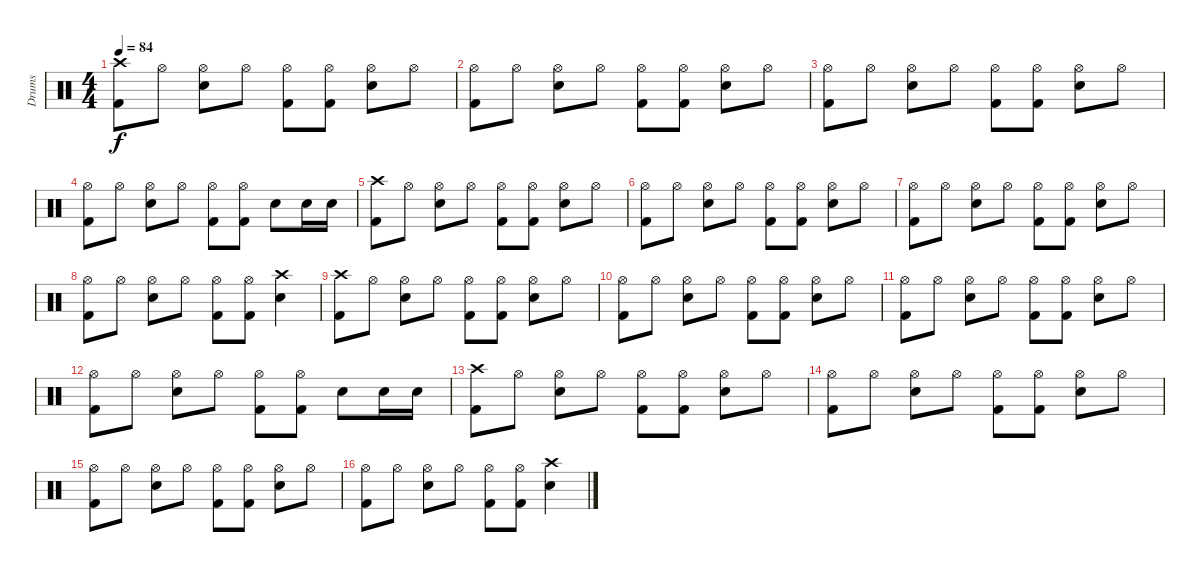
\track ("Drums" "Drums") {instrument percussion}
\staff {score}
\articulation defaults
\ts (4 4)
\tempo 84
\clef neutral
\ks c
("Crash high (hit)" "Kick (hit) 2").8{dy f} "Hi-Hat (open)".8 ("Hi-Hat (open)" "Snare (hit) 2").8 "Hi-Hat (open)".8 ("Hi-Hat (open)" "Kick (hit) 2").8 ("Hi-Hat (open)" "Kick (hit) 2").8 ("Hi-Hat (open)" "Snare (hit) 2").8 "Hi-Hat (open)".8 |
("Hi-Hat (open)" "Kick (hit) 2").8 "Hi-Hat (open)".8 ("Hi-Hat (open)" "Snare (hit) 2").8 "Hi-Hat (open)".8 ("Hi-Hat (open)" "Kick (hit) 2").8 ("Hi-Hat (open)" "Kick (hit) 2").8 ("Hi-Hat (open)" "Snare (hit) 2").8 "Hi-Hat (open)".8 |
("Hi-Hat (open)" "Kick (hit) 2").8 "Hi-Hat (open)".8 ("Hi-Hat (open)" "Snare (hit) 2").8 "Hi-Hat (open)".8 ("Hi-Hat (open)" "Kick (hit) 2").8 ("Hi-Hat (open)" "Kick (hit) 2").8 ("Hi-Hat (open)" "Snare (hit) 2").8 "Hi-Hat (open)".8 |
("Hi-Hat (open)" "Kick (hit) 2").8 "Hi-Hat (open)".8 ("Hi-Hat (open)" "Snare (hit) 2").8 "Hi-Hat (open)".8 ("Hi-Hat (open)" "Kick (hit) 2").8 ("Hi-Hat (open)" "Kick (hit) 2").8 "Snare (hit) 2".8 "Snare (hit) 2".16 "Snare (hit) 2".16 |
("Crash high (hit)" "Kick (hit) 2").8 "Hi-Hat (open)".8 ("Hi-Hat (open)" "Snare (hit) 2").8 "Hi-Hat (open)".8 ("Hi-Hat (open)" "Kick (hit) 2").8 ("Hi-Hat (open)" "Kick (hit) 2").8 ("Hi-Hat (open)" "Snare (hit) 2").8 "Hi-Hat (open)".8 |
("Hi-Hat (open)" "Kick (hit) 2").8 "Hi-Hat (open)".8 ("Hi-Hat (open)" "Snare (hit) 2").8 "Hi-Hat (open)".8 ("Hi-Hat (open)" "Kick (hit) 2").8 ("Hi-Hat (open)" "Kick (hit) 2").8 ("Hi-Hat (open)" "Snare (hit) 2").8 "Hi-Hat (open)".8 |
("Hi-Hat (open)" "Kick (hit) 2").8 "Hi-Hat (open)".8 ("Hi-Hat (open)" "Snare (hit) 2").8 "Hi-Hat (open)".8 ("Hi-Hat (open)" "Kick (hit) 2").8 ("Hi-Hat (open)" "Kick (hit) 2").8 ("Hi-Hat (open)" "Snare (hit) 2").8 "Hi-Hat (open)".8 |
("Hi-Hat (open)" "Kick (hit) 2").8 "Hi-Hat (open)".8 ("Hi-Hat (open)" "Snare (hit) 2").8 "Hi-Hat (open)".8 ("Hi-Hat (open)" "Kick (hit) 2").8 ("Hi-Hat (open)" "Kick (hit) 2").8 ("Crash high (hit)" "Snare (hit) 2").4 |
("Crash high (hit)" "Kick (hit) 2").8 "Hi-Hat (open)".8 ("Hi-Hat (open)" "Snare (hit) 2").8 "Hi-Hat (open)".8 ("Hi-Hat (open)" "Kick (hit) 2").8 ("Hi-Hat (open)" "Kick (hit) 2").8 ("Hi-Hat (open)" "Snare (hit) 2").8 "Hi-Hat (open)".8 |
("Hi-Hat (open)" "Kick (hit) 2").8 "Hi-Hat (open)".8 ("Hi-Hat (open)" "Snare (hit) 2").8 "Hi-Hat (open)".8 ("Hi-Hat (open)" "Kick (hit) 2").8 ("Hi-Hat (open)" "Kick (hit) 2").8 ("Hi-Hat (open)" "Snare (hit) 2").8 "Hi-Hat (open)".8 |
("Hi-Hat (open)" "Kick (hit) 2").8 "Hi-Hat (open)".8 ("Hi-Hat (open)" "Snare (hit) 2").8 "Hi-Hat (open)".8 ("Hi-Hat (open)" "Kick (hit) 2").8 ("Hi-Hat (open)" "Kick (hit) 2").8 ("Hi-Hat (open)" "Snare (hit) 2").8 "Hi-Hat (open)".8 |
("Hi-Hat (open)" "Kick (hit) 2").8 "Hi-Hat (open)".8 ("Hi-Hat (open)" "Snare (hit) 2").8 "Hi-Hat (open)".8 ("Hi-Hat (open)" "Kick (hit) 2").8 ("Hi-Hat (open)" "Kick (hit) 2").8 "Snare (hit) 2".8 "Snare (hit) 2".16 "Snare (hit) 2".16 |
("Crash high (hit)" "Kick (hit) 2").8 "Hi-Hat (open)".8 ("Hi-Hat (open)" "Snare (hit) 2").8 "Hi-Hat (open)".8 ("Hi-Hat (open)" "Kick (hit) 2").8 ("Hi-Hat (open)" "Kick (hit) 2").8 ("Hi-Hat (open)" "Snare (hit) 2").8 "Hi-Hat (open)".8 |
("Hi-Hat (open)" "Kick (hit) 2").8 "Hi-Hat (open)".8 ("Hi-Hat (open)" "Snare (hit) 2").8 "Hi-Hat (open)".8 ("Hi-Hat (open)" "Kick (hit) 2").8 ("Hi-Hat (open)" "Kick (hit) 2").8 ("Hi-Hat (open)" "Snare (hit) 2").8 "Hi-Hat (open)".8 |
("Hi-Hat (open)" "Kick (hit) 2").8 "Hi-Hat (open)".8 ("Hi-Hat (open)" "Snare (hit) 2").8 "Hi-Hat (open)".8 ("Hi-Hat (open)" "Kick (hit) 2").8 ("Hi-Hat (open)" "Kick (hit) 2").8 ("Hi-Hat (open)" "Snare (hit) 2").8 "Hi-Hat (open)".8 |
("Hi-Hat (open)" "Kick (hit) 2").8 "Hi-Hat (open)".8 ("Hi-Hat (open)" "Snare (hit) 2").8 "Hi-Hat (open)".8 ("Hi-Hat (open)" "Kick (hit) 2").8 ("Hi-Hat (open)" "Kick (hit) 2").8 ("Crash high (hit)" "Snare (hit) 2").4
